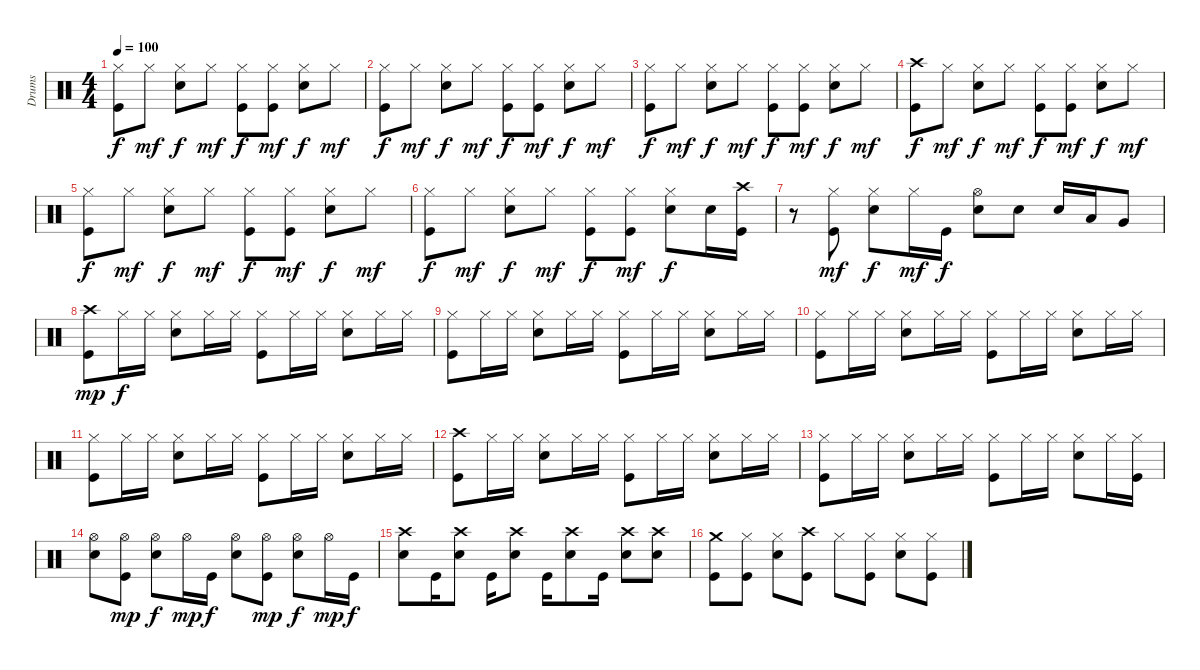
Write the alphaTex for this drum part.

\track ("Drums" "Drums") {instrument percussion}
\staff {score}
\articulation defaults
\ts (4 4)
\tempo 100
\clef neutral
\ks c
("Hi-Hat (closed)" "Kick (hit)").8{dy f} "Hi-Hat (closed)".8{dy mf} ("Hi-Hat (closed)" "Snare (hit) 2").8{dy f} "Hi-Hat (closed)".8{dy mf} ("Hi-Hat (closed)" "Kick (hit)").8{dy f} ("Hi-Hat (closed)" "Kick (hit)").8{dy mf} ("Hi-Hat (closed)" "Snare (hit) 2").8{dy f} "Hi-Hat (closed)".8{dy mf} |
("Hi-Hat (closed)" "Kick (hit)").8{dy f} "Hi-Hat (closed)".8{dy mf} ("Hi-Hat (closed)" "Snare (hit) 2").8{dy f} "Hi-Hat (closed)".8{dy mf} ("Hi-Hat (closed)" "Kick (hit)").8{dy f} ("Hi-Hat (closed)" "Kick (hit)").8{dy mf} ("Hi-Hat (closed)" "Snare (hit) 2").8{dy f} "Hi-Hat (closed)".8{dy mf} |
("Hi-Hat (closed)" "Kick (hit)").8{dy f} "Hi-Hat (closed)".8{dy mf} ("Hi-Hat (closed)" "Snare (hit) 2").8{dy f} "Hi-Hat (closed)".8{dy mf} ("Hi-Hat (closed)" "Kick (hit)").8{dy f} ("Hi-Hat (closed)" "Kick (hit)").8{dy mf} ("Hi-Hat (closed)" "Snare (hit) 2").8{dy f} "Hi-Hat (closed)".8{dy mf} |
("Crash high (hit)" "Kick (hit)").8{dy f} "Hi-Hat (closed)".8{dy mf} ("Hi-Hat (closed)" "Snare (hit) 2").8{dy f} "Hi-Hat (closed)".8{dy mf} ("Hi-Hat (closed)" "Kick (hit)").8{dy f} ("Hi-Hat (closed)" "Kick (hit)").8{dy mf} ("Hi-Hat (closed)" "Snare (hit) 2").8{dy f} "Hi-Hat (closed)".8{dy mf} |
("Hi-Hat (closed)" "Kick (hit)").8{dy f} "Hi-Hat (closed)".8{dy mf} ("Hi-Hat (closed)" "Snare (hit) 2").8{dy f} "Hi-Hat (closed)".8{dy mf} ("Hi-Hat (closed)" "Kick (hit)").8{dy f} ("Hi-Hat (closed)" "Kick (hit)").8{dy mf} ("Hi-Hat (closed)" "Snare (hit) 2").8{dy f} "Hi-Hat (closed)".8{dy mf} |
("Hi-Hat (closed)" "Kick (hit)").8{dy f} "Hi-Hat (closed)".8{dy mf} ("Hi-Hat (closed)" "Snare (hit) 2").8{dy f} "Hi-Hat (closed)".8{dy mf} ("Hi-Hat (closed)" "Kick (hit)").8{dy f} ("Hi-Hat (closed)" "Kick (hit)").8{dy mf} ("Hi-Hat (closed)" "Snare (hit) 2").8{dy f} "Snare (hit) 2".16 ("Crash high (hit)" "Kick (hit)").16 |
r.8 ("Hi-Hat (closed)" "Kick (hit)").8{dy mf} ("Hi-Hat (closed)" "Snare (hit) 2").8{dy f} "Hi-Hat (closed)".16{dy mf} "Kick (hit)".16{dy f} ("Hi-Hat (open)" "Snare (hit) 2").8 "Snare (hit) 2".8 "Snare (hit) 2".16 "Low Tom (hit)".16 "Very Low Tom (hit)".8 |
("Crash high (hit)" "Kick (hit)").8{dy mp} "Hi-Hat (closed)".16{dy f} "Hi-Hat (closed)".16 ("Hi-Hat (closed)" "Snare (hit) 2").8 "Hi-Hat (closed)".16 "Hi-Hat (closed)".16 ("Hi-Hat (closed)" "Kick (hit)").8 "Hi-Hat (closed)".16 "Hi-Hat (closed)".16 ("Hi-Hat (closed)" "Snare (hit) 2").8 "Hi-Hat (closed)".16 "Hi-Hat (closed)".16 |
("Hi-Hat (closed)" "Kick (hit)").8 "Hi-Hat (closed)".16 "Hi-Hat (closed)".16 ("Hi-Hat (closed)" "Snare (hit) 2").8 "Hi-Hat (closed)".16 "Hi-Hat (closed)".16 ("Hi-Hat (closed)" "Kick (hit)").8 "Hi-Hat (closed)".16 "Hi-Hat (closed)".16 ("Hi-Hat (closed)" "Snare (hit) 2").8 "Hi-Hat (closed)".16 "Hi-Hat (closed)".16 |
("Hi-Hat (closed)" "Kick (hit)").8 "Hi-Hat (closed)".16 "Hi-Hat (closed)".16 ("Hi-Hat (closed)" "Snare (hit) 2").8 "Hi-Hat (closed)".16 "Hi-Hat (closed)".16 ("Hi-Hat (closed)" "Kick (hit)").8 "Hi-Hat (closed)".16 "Hi-Hat (closed)".16 ("Hi-Hat (closed)" "Snare (hit) 2").8 "Hi-Hat (closed)".16 "Hi-Hat (closed)".16 |
("Hi-Hat (closed)" "Kick (hit)").8 "Hi-Hat (closed)".16 "Hi-Hat (closed)".16 ("Hi-Hat (closed)" "Snare (hit) 2").8 "Hi-Hat (closed)".16 "Hi-Hat (closed)".16 ("Hi-Hat (closed)" "Kick (hit)").8 "Hi-Hat (closed)".16 "Hi-Hat (closed)".16 ("Hi-Hat (closed)" "Snare (hit) 2").8 "Hi-Hat (closed)".16 "Hi-Hat (closed)".16 |
("Crash high (hit)" "Kick (hit)").8 "Hi-Hat (closed)".16 "Hi-Hat (closed)".16 ("Hi-Hat (closed)" "Snare (hit) 2").8 "Hi-Hat (closed)".16 "Hi-Hat (closed)".16 ("Hi-Hat (closed)" "Kick (hit)").8 "Hi-Hat (closed)".16 "Hi-Hat (closed)".16 ("Hi-Hat (closed)" "Snare (hit) 2").8 "Hi-Hat (closed)".16 "Hi-Hat (closed)".16 |
("Hi-Hat (closed)" "Kick (hit)").8 "Hi-Hat (closed)".16 "Hi-Hat (closed)".16 ("Hi-Hat (closed)" "Snare (hit) 2").8 "Hi-Hat (closed)".16 "Hi-Hat (closed)".16 ("Hi-Hat (closed)" "Kick (hit)").8 "Hi-Hat (closed)".16 "Hi-Hat (closed)".16 ("Hi-Hat (closed)" "Snare (hit) 2").8 "Hi-Hat (closed)".16 ("Hi-Hat (closed)" "Kick (hit)").16 |
("Hi-Hat (open)" "Snare (hit) 2").8 ("Hi-Hat (open)" "Kick (hit)").8{dy mp} ("Hi-Hat (open)" "Snare (hit) 2").8{dy f} "Hi-Hat (open)".16{dy mp} "Kick (hit)".16{dy f} ("Hi-Hat (open)" "Snare (hit) 2").8 ("Hi-Hat (open)" "Kick (hit)").8{dy mp} ("Hi-Hat (open)" "Snare (hit) 2").8{dy f} "Hi-Hat (open)".16{dy mp} "Kick (hit)".16{dy f} |
("Crash high (hit)" "Snare (hit) 2").8 "Kick (hit)".16 ("Crash high (hit)" "Snare (hit) 2").8 "Kick (hit)".16 ("Crash high (hit)" "Snare (hit) 2").8 "Kick (hit)".16 ("Crash high (hit)" "Snare (hit) 2").8 "Kick (hit)".16 ("Crash high (hit)" "Snare (hit) 2").8 ("Crash high (hit)" "Snare (hit) 2").8 |
("Crash medium (hit)" "Kick (hit)").8 ("Hi-Hat (closed)" "Kick (hit)").8 ("Hi-Hat (closed)" "Snare (hit) 2").8 ("Crash high (hit)" "Kick (hit)").8 "Hi-Hat (closed)".8 ("Hi-Hat (closed)" "Kick (hit)").8 ("Hi-Hat (closed)" "Snare (hit) 2").8 ("Hi-Hat (closed)" "Kick (hit)").8
